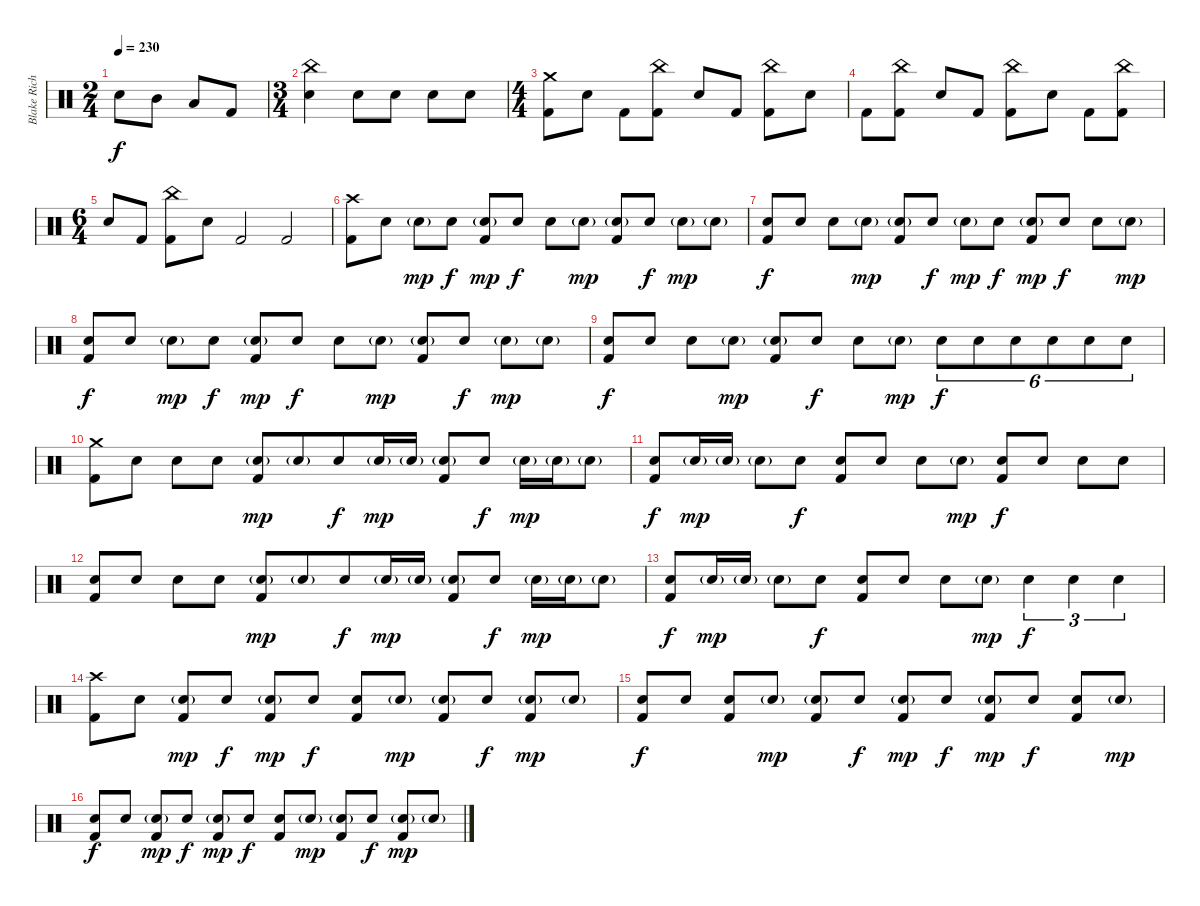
\track ("Blake Richardson - Drums" "Blake Rich") {instrument percussion}
\staff {score}
\articulation defaults
\ts (2 4)
\tempo 230
\clef neutral
\ks c "Electric Snare (hit)".8{dy f} "Mid Tom (hit)".8 "Low Tom (hit)".8 "Kick (hit) 2".8
|
\ts (3 4)
("China (hit)" "Electric Snare (hit)").4 "Electric Snare (hit)".8 "Electric Snare (hit)".8 "Electric Snare (hit)".8 "Electric Snare (hit)".8 |
\ts (4 4)
("Crash medium (hit)" "Kick (hit) 2").8 "Electric Snare (hit)".8 "Kick (hit) 2".8 ("China (hit)" "Kick (hit) 2").8 "Electric Snare (hit)".8 "Kick (hit) 2".8 ("China (hit)" "Kick (hit) 2").8 "Electric Snare (hit)".8 |
"Kick (hit) 2".8 ("China (hit)" "Kick (hit) 2").8 "Electric Snare (hit)".8 "Kick (hit) 2".8 ("China (hit)" "Kick (hit) 2").8 "Electric Snare (hit)".8 "Kick (hit) 2".8 ("China (hit)" "Kick (hit) 2").8 |
\ts (6 4)
"Electric Snare (hit)".8 "Kick (hit) 2".8{beam split} ("China (hit)" "Kick (hit) 2").8 "Electric Snare (hit)".8 "Kick (hit) 2".2 "Kick (hit) 2".2 |
("Crash high (hit)" "Kick (hit) 2").8 "Electric Snare (hit)".8 "Electric Snare (hit)"{g}.8{dy mp} "Electric Snare (hit)".8{dy f} ("Electric Snare (hit)"{g} "Kick (hit) 2").8{dy mp} "Electric Snare (hit)".8{dy f} "Electric Snare (hit)".8 "Electric Snare (hit)"{g}.8{dy mp} ("Electric Snare (hit)"{g} "Kick (hit) 2").8 "Electric Snare (hit)".8{dy f} "Electric Snare (hit)"{g}.8{dy mp} "Electric Snare (hit)"{g}.8 |
("Electric Snare (hit)" "Kick (hit) 2").8{dy f} "Electric Snare (hit)".8 "Electric Snare (hit)".8 "Electric Snare (hit)"{g}.8{dy mp} ("Electric Snare (hit)"{g} "Kick (hit) 2").8 "Electric Snare (hit)".8{dy f} "Electric Snare (hit)"{g}.8{dy mp} "Electric Snare (hit)".8{dy f} ("Electric Snare (hit)"{g} "Kick (hit) 2").8{dy mp} "Electric Snare (hit)".8{dy f} "Electric Snare (hit)".8 "Electric Snare (hit)"{g}.8{dy mp} |
("Electric Snare (hit)" "Kick (hit) 2").8{dy f} "Electric Snare (hit)".8 "Electric Snare (hit)"{g}.8{dy mp} "Electric Snare (hit)".8{dy f} ("Electric Snare (hit)"{g} "Kick (hit) 2").8{dy mp} "Electric Snare (hit)".8{dy f} "Electric Snare (hit)".8 "Electric Snare (hit)"{g}.8{dy mp} ("Electric Snare (hit)"{g} "Kick (hit) 2").8 "Electric Snare (hit)".8{dy f} "Electric Snare (hit)"{g}.8{dy mp} "Electric Snare (hit)"{g}.8 |
("Electric Snare (hit)" "Kick (hit) 2").8{dy f} "Electric Snare (hit)".8 "Electric Snare (hit)".8 "Electric Snare (hit)"{g}.8{dy mp} ("Electric Snare (hit)"{g} "Kick (hit) 2").8 "Electric Snare (hit)".8{dy f} "Electric Snare (hit)".8 "Electric Snare (hit)"{g}.8{dy mp} "Electric Snare (hit)".8{tu (6 4) dy f} "Electric Snare (hit)".8{tu (6 4)} "Electric Snare (hit)".8{tu (6 4)} "Electric Snare (hit)".8{tu (6 4)} "Electric Snare (hit)".8{tu (6 4)} "Electric Snare (hit)".8{tu (6 4)} |
("Crash medium (hit)" "Kick (hit) 2").8 "Electric Snare (hit)".8 "Electric Snare (hit)".8 "Electric Snare (hit)".8 ("Electric Snare (hit)"{g} "Kick (hit) 2").8{dy mp} "Electric Snare (hit)"{g}.8{beam merge} "Electric Snare (hit)".8{dy f} "Electric Snare (hit)"{g}.16{dy mp} "Electric Snare (hit)"{g}.16{beam split} ("Electric Snare (hit)"{g} "Kick (hit) 2").8 "Electric Snare (hit)".8{dy f} "Electric Snare (hit)"{g}.16{dy mp} "Electric Snare (hit)"{g}.16 "Electric Snare (hit)"{g}.8 |
("Electric Snare (hit)" "Kick (hit) 2").8{dy f} "Electric Snare (hit)"{g}.16{dy mp} "Electric Snare (hit)"{g}.16 "Electric Snare (hit)"{g}.8 "Electric Snare (hit)".8{dy f beam split} ("Electric Snare (hit)" "Kick (hit) 2").8 "Electric Snare (hit)".8 "Electric Snare (hit)".8 "Electric Snare (hit)"{g}.8{dy mp} ("Electric Snare (hit)" "Kick (hit) 2").8{dy f} "Electric Snare (hit)".8{beam split} "Electric Snare (hit)".8 "Electric Snare (hit)".8 |
("Electric Snare (hit)" "Kick (hit) 2").8 "Electric Snare (hit)".8 "Electric Snare (hit)".8 "Electric Snare (hit)".8 ("Electric Snare (hit)"{g} "Kick (hit) 2").8{dy mp} "Electric Snare (hit)"{g}.8{beam merge} "Electric Snare (hit)".8{dy f} "Electric Snare (hit)"{g}.16{dy mp} "Electric Snare (hit)"{g}.16{beam split} ("Electric Snare (hit)"{g} "Kick (hit) 2").8 "Electric Snare (hit)".8{dy f} "Electric Snare (hit)"{g}.16{dy mp} "Electric Snare (hit)"{g}.16 "Electric Snare (hit)"{g}.8 |
("Electric Snare (hit)" "Kick (hit) 2").8{dy f} "Electric Snare (hit)"{g}.16{dy mp} "Electric Snare (hit)"{g}.16 "Electric Snare (hit)"{g}.8 "Electric Snare (hit)".8{dy f beam split} ("Electric Snare (hit)" "Kick (hit) 2").8 "Electric Snare (hit)".8 "Electric Snare (hit)".8 "Electric Snare (hit)"{g}.8{dy mp} "Electric Snare (hit)".4{tu (3 2) dy f} "Electric Snare (hit)".4{tu (3 2)} "Electric Snare (hit)".4{tu (3 2)} |
("Crash high (hit)" "Kick (hit) 2").8 "Electric Snare (hit)".8 ("Electric Snare (hit)"{g} "Kick (hit) 2").8{dy mp} "Electric Snare (hit)".8{dy f} ("Electric Snare (hit)"{g} "Kick (hit) 2").8{dy mp} "Electric Snare (hit)".8{dy f} ("Electric Snare (hit)" "Kick (hit) 2").8 "Electric Snare (hit)"{g}.8{dy mp} ("Electric Snare (hit)"{g} "Kick (hit) 2").8 "Electric Snare (hit)".8{dy f} ("Electric Snare (hit)"{g} "Kick (hit) 2").8{dy mp} "Electric Snare (hit)"{g}.8 |
("Electric Snare (hit)" "Kick (hit) 2").8{dy f} "Electric Snare (hit)".8 ("Electric Snare (hit)" "Kick (hit) 2").8 "Electric Snare (hit)"{g}.8{dy mp} ("Electric Snare (hit)"{g} "Kick (hit) 2").8 "Electric Snare (hit)".8{dy f} ("Electric Snare (hit)"{g} "Kick (hit) 2").8{dy mp} "Electric Snare (hit)".8{dy f} ("Electric Snare (hit)"{g} "Kick (hit) 2").8{dy mp} "Electric Snare (hit)".8{dy f} ("Electric Snare (hit)" "Kick (hit) 2").8 "Electric Snare (hit)"{g}.8{dy mp} |
("Electric Snare (hit)" "Kick (hit) 2").8{dy f} "Electric Snare (hit)".8 ("Electric Snare (hit)"{g} "Kick (hit) 2").8{dy mp} "Electric Snare (hit)".8{dy f} ("Electric Snare (hit)"{g} "Kick (hit) 2").8{dy mp} "Electric Snare (hit)".8{dy f} ("Electric Snare (hit)" "Kick (hit) 2").8 "Electric Snare (hit)"{g}.8{dy mp} ("Electric Snare (hit)"{g} "Kick (hit) 2").8 "Electric Snare (hit)".8{dy f} ("Electric Snare (hit)"{g} "Kick (hit) 2").8{dy mp} "Electric Snare (hit)"{g}.8
